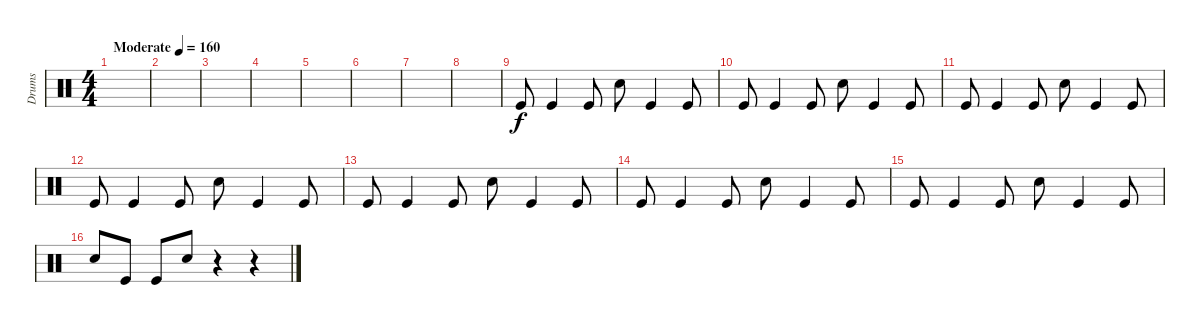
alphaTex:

\track ("Drums" "Drums") {instrument percussion}
\staff {score}
\articulation defaults
\ts (4 4)
\tempo (160 "Moderate")
\clef neutral
\ks c
|
|
|
|
|
|
|
|
"Kick (hit)".8{volume 7} "Kick (hit)".4 "Kick (hit)".8 "Snare (hit) 2".8 "Kick (hit)".4 "Kick (hit)".8 |
"Kick (hit)".8 "Kick (hit)".4 "Kick (hit)".8 "Snare (hit) 2".8 "Kick (hit)".4 "Kick (hit)".8 |
"Kick (hit)".8 "Kick (hit)".4 "Kick (hit)".8 "Snare (hit) 2".8 "Kick (hit)".4 "Kick (hit)".8 |
"Kick (hit)".8 "Kick (hit)".4 "Kick (hit)".8 "Snare (hit) 2".8 "Kick (hit)".4 "Kick (hit)".8 |
"Kick (hit)".8 "Kick (hit)".4 "Kick (hit)".8 "Snare (hit) 2".8 "Kick (hit)".4 "Kick (hit)".8 |
"Kick (hit)".8 "Kick (hit)".4 "Kick (hit)".8 "Snare (hit) 2".8 "Kick (hit)".4 "Kick (hit)".8 |
"Kick (hit)".8 "Kick (hit)".4 "Kick (hit)".8 "Snare (hit) 2".8 "Kick (hit)".4 "Kick (hit)".8 |
"Snare (hit) 2".8{volume 0} "Kick (hit)".8 "Kick (hit)".8 "Snare (hit) 2".8 r.4 r.4
